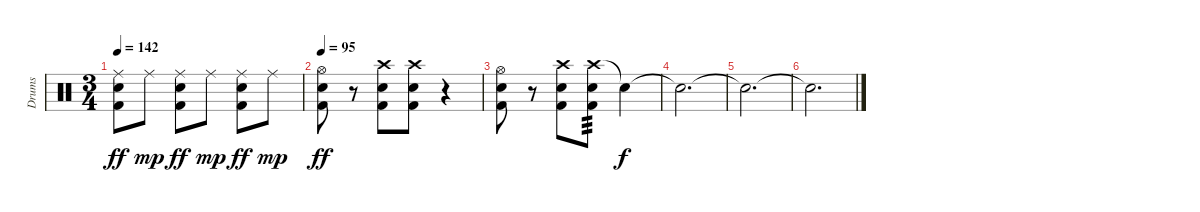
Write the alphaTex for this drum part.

\track ("Drums" "Drums") {instrument percussion}
\staff {score}
\articulation defaults
\ts (3 4)
\tempo 142
\clef neutral
\ks c
("Ride (middle)" "Snare (hit) 2" "Kick (hit) 2").8{dy ff} "Ride (middle)".8{dy mp} ("Ride (middle)" "Snare (hit) 2" "Kick (hit) 2").8{dy ff} "Ride (middle)".8{dy mp} ("Ride (middle)" "Snare (hit) 2" "Kick (hit) 2").8{dy ff} "Ride (middle)".8{dy mp} |
\tempo 95
("Hi-Hat (open)" "Snare (hit) 2" "Kick (hit) 2").8{dy ff} r.8 ("Crash high (hit)" "Snare (hit) 2" "Kick (hit) 2").8 ("Crash high (hit)" "Snare (hit) 2" "Kick (hit) 2").8 r.4 |
("Hi-Hat (open)" "Snare (hit) 2" "Kick (hit) 2").8 r.8 ("Crash high (hit)" "Snare (hit) 2" "Kick (hit) 2").8 ("Crash high (hit)" "Snare (hit) 2" "Kick (hit) 2").8{tp 3} "Snare (hit)"{t}.4{dy f} |
"Snare (hit)"{t}.2{d volume 1} |
"Snare (hit)"{t}.2{d} |
"Snare (hit)"{t}.2{d}
